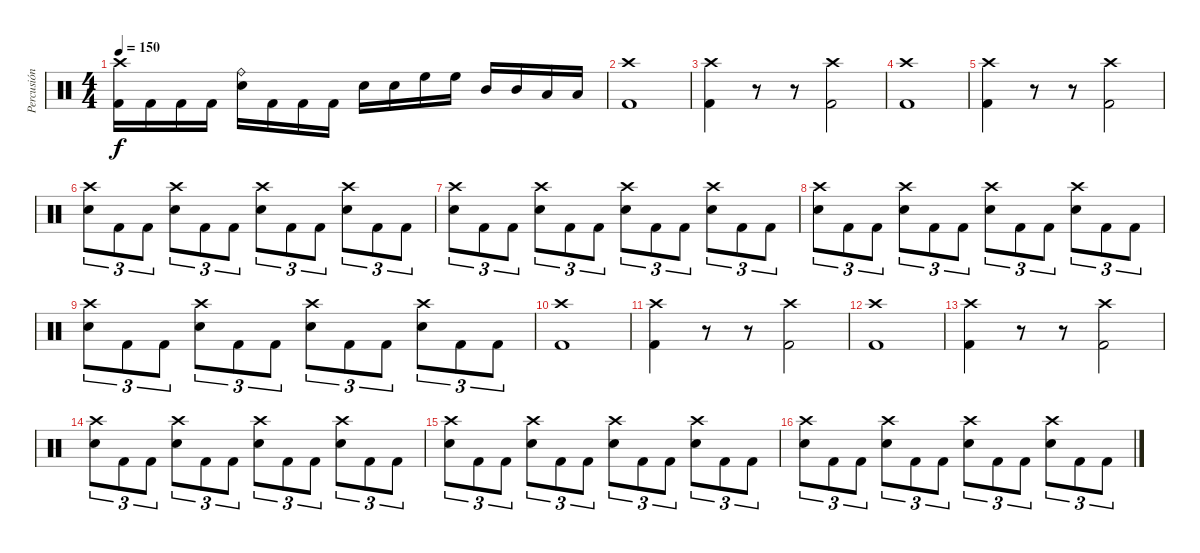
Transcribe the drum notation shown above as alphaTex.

\track ("Percusión" "Percusión") {instrument percussion}
\staff {score}
\articulation defaults
\ts (4 4)
\tempo 150
\clef neutral
\ks c
("Crash high (hit)" "Kick (hit) 2").16{dy f} "Kick (hit) 2".16 "Kick (hit) 2".16 "Kick (hit) 2".16 ("Ride (bell)" "Electric Snare (hit)").16 "Kick (hit) 2".16 "Kick (hit) 2".16 "Kick (hit) 2".16 "Electric Snare (hit)".16 "Electric Snare (hit)".16 "High Floor Tom (hit)".16 "High Floor Tom (hit)".16 "Mid Tom (hit)".16 "Mid Tom (hit)".16 "Low Tom (hit)".16 "Low Tom (hit)".16 |
("Crash high (hit)" "Kick (hit) 2").1 |
("Crash high (hit)" "Kick (hit) 2").4 r.8 r.8 ("Crash high (hit)" "Kick (hit) 2").2 |
("Crash high (hit)" "Kick (hit) 2").1 |
("Crash high (hit)" "Kick (hit) 2").4 r.8 r.8 ("Crash high (hit)" "Kick (hit) 2").2 |
("Crash high (hit)" "Electric Snare (hit)").8{tu (3 2)} "Kick (hit) 2".8{tu (3 2)} "Kick (hit) 2".8{tu (3 2)} ("Crash high (hit)" "Electric Snare (hit)").8{tu (3 2)} "Kick (hit) 2".8{tu (3 2)} "Kick (hit) 2".8{tu (3 2)} ("Crash high (hit)" "Electric Snare (hit)").8{tu (3 2)} "Kick (hit) 2".8{tu (3 2)} "Kick (hit) 2".8{tu (3 2)} ("Crash high (hit)" "Electric Snare (hit)").8{tu (3 2)} "Kick (hit) 2".8{tu (3 2)} "Kick (hit) 2".8{tu (3 2)} |
("Crash high (hit)" "Electric Snare (hit)").8{tu (3 2)} "Kick (hit) 2".8{tu (3 2)} "Kick (hit) 2".8{tu (3 2)} ("Crash high (hit)" "Electric Snare (hit)").8{tu (3 2)} "Kick (hit) 2".8{tu (3 2)} "Kick (hit) 2".8{tu (3 2)} ("Crash high (hit)" "Electric Snare (hit)").8{tu (3 2)} "Kick (hit) 2".8{tu (3 2)} "Kick (hit) 2".8{tu (3 2)} ("Crash high (hit)" "Electric Snare (hit)").8{tu (3 2)} "Kick (hit) 2".8{tu (3 2)} "Kick (hit) 2".8{tu (3 2)} |
("Crash high (hit)" "Electric Snare (hit)").8{tu (3 2)} "Kick (hit) 2".8{tu (3 2)} "Kick (hit) 2".8{tu (3 2)} ("Crash high (hit)" "Electric Snare (hit)").8{tu (3 2)} "Kick (hit) 2".8{tu (3 2)} "Kick (hit) 2".8{tu (3 2)} ("Crash high (hit)" "Electric Snare (hit)").8{tu (3 2)} "Kick (hit) 2".8{tu (3 2)} "Kick (hit) 2".8{tu (3 2)} ("Crash high (hit)" "Electric Snare (hit)").8{tu (3 2)} "Kick (hit) 2".8{tu (3 2)} "Kick (hit) 2".8{tu (3 2)} |
("Crash high (hit)" "Electric Snare (hit)").8{tu (3 2)} "Kick (hit) 2".8{tu (3 2)} "Kick (hit) 2".8{tu (3 2)} ("Crash high (hit)" "Electric Snare (hit)").8{tu (3 2)} "Kick (hit) 2".8{tu (3 2)} "Kick (hit) 2".8{tu (3 2)} ("Crash high (hit)" "Electric Snare (hit)").8{tu (3 2)} "Kick (hit) 2".8{tu (3 2)} "Kick (hit) 2".8{tu (3 2)} ("Crash high (hit)" "Electric Snare (hit)").8{tu (3 2)} "Kick (hit) 2".8{tu (3 2)} "Kick (hit) 2".8{tu (3 2)} |
("Crash high (hit)" "Kick (hit) 2").1 |
("Crash high (hit)" "Kick (hit) 2").4 r.8 r.8 ("Crash high (hit)" "Kick (hit) 2").2 |
("Crash high (hit)" "Kick (hit) 2").1 |
("Crash high (hit)" "Kick (hit) 2").4 r.8 r.8 ("Crash high (hit)" "Kick (hit) 2").2 |
("Crash high (hit)" "Electric Snare (hit)").8{tu (3 2)} "Kick (hit) 2".8{tu (3 2)} "Kick (hit) 2".8{tu (3 2)} ("Crash high (hit)" "Electric Snare (hit)").8{tu (3 2)} "Kick (hit) 2".8{tu (3 2)} "Kick (hit) 2".8{tu (3 2)} ("Crash high (hit)" "Electric Snare (hit)").8{tu (3 2)} "Kick (hit) 2".8{tu (3 2)} "Kick (hit) 2".8{tu (3 2)} ("Crash high (hit)" "Electric Snare (hit)").8{tu (3 2)} "Kick (hit) 2".8{tu (3 2)} "Kick (hit) 2".8{tu (3 2)} |
("Crash high (hit)" "Electric Snare (hit)").8{tu (3 2)} "Kick (hit) 2".8{tu (3 2)} "Kick (hit) 2".8{tu (3 2)} ("Crash high (hit)" "Electric Snare (hit)").8{tu (3 2)} "Kick (hit) 2".8{tu (3 2)} "Kick (hit) 2".8{tu (3 2)} ("Crash high (hit)" "Electric Snare (hit)").8{tu (3 2)} "Kick (hit) 2".8{tu (3 2)} "Kick (hit) 2".8{tu (3 2)} ("Crash high (hit)" "Electric Snare (hit)").8{tu (3 2)} "Kick (hit) 2".8{tu (3 2)} "Kick (hit) 2".8{tu (3 2)} |
("Crash high (hit)" "Electric Snare (hit)").8{tu (3 2)} "Kick (hit) 2".8{tu (3 2)} "Kick (hit) 2".8{tu (3 2)} ("Crash high (hit)" "Electric Snare (hit)").8{tu (3 2)} "Kick (hit) 2".8{tu (3 2)} "Kick (hit) 2".8{tu (3 2)} ("Crash high (hit)" "Electric Snare (hit)").8{tu (3 2)} "Kick (hit) 2".8{tu (3 2)} "Kick (hit) 2".8{tu (3 2)} ("Crash high (hit)" "Electric Snare (hit)").8{tu (3 2)} "Kick (hit) 2".8{tu (3 2)} "Kick (hit) 2".8{tu (3 2)}
